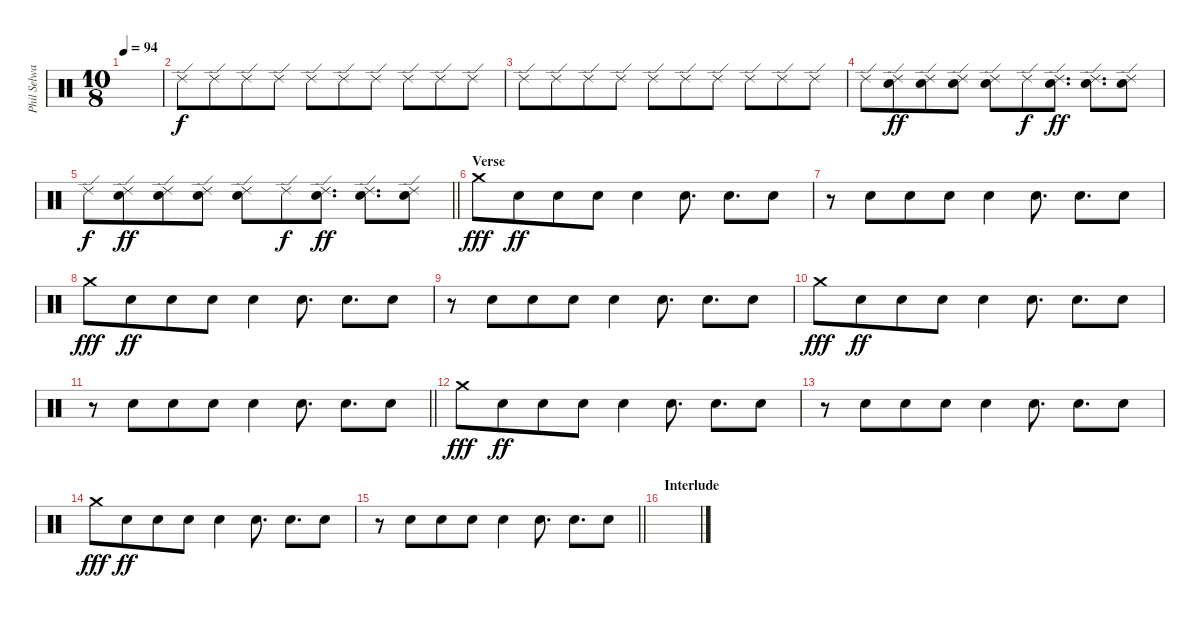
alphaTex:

\track ("Phil Selway" "Phil Selwa") {instrument percussion}
\staff {score}
\articulation defaults
\ts (10 8)
\tempo 94
\clef neutral
\ks c
|
"Ride (edge) 2".8{dy f} "Ride (edge) 2".8 "Ride (edge) 2".8 "Ride (edge) 2".8 "Ride (edge) 2".8 "Ride (edge) 2".8 "Ride (edge) 2".8 "Ride (edge) 2".8 "Ride (edge) 2".8 "Ride (edge) 2".8 |
"Ride (edge) 2".8 "Ride (edge) 2".8 "Ride (edge) 2".8 "Ride (edge) 2".8 "Ride (edge) 2".8 "Ride (edge) 2".8 "Ride (edge) 2".8 "Ride (edge) 2".8 "Ride (edge) 2".8 "Ride (edge) 2".8 |
"Ride (edge) 2".8 ("Ride (edge) 2" "Hand Clap (hit)").8{dy ff} ("Ride (edge) 2" "Hand Clap (hit)").8 ("Ride (edge) 2" "Hand Clap (hit)").8 ("Ride (edge) 2" "Hand Clap (hit)").8 "Ride (edge) 2".8{dy f} ("Ride (edge) 2" "Hand Clap (hit)").8{d dy ff} ("Ride (edge) 2" "Hand Clap (hit)").8{d} ("Ride (edge) 2" "Hand Clap (hit)").8 |
\barLineRight lightlight "Ride (edge) 2".8{dy f}
("Ride (edge) 2" "Hand Clap (hit)").8{dy ff} ("Ride (edge) 2" "Hand Clap (hit)").8 ("Ride (edge) 2" "Hand Clap (hit)").8 ("Ride (edge) 2" "Hand Clap (hit)").8 "Ride (edge) 2".8{dy f} ("Ride (edge) 2" "Hand Clap (hit)").8{d dy ff} ("Ride (edge) 2" "Hand Clap (hit)").8{d} ("Ride (edge) 2" "Hand Clap (hit)").8 |
\section ("" "Verse")
"Crash medium (hit)".8{dy fff} "Hand Clap (hit)".8{dy ff} "Hand Clap (hit)".8 "Hand Clap (hit)".8 "Hand Clap (hit)".4 "Hand Clap (hit)".8{d} "Hand Clap (hit)".8{d} "Hand Clap (hit)".8 |
r.8 "Hand Clap (hit)".8 "Hand Clap (hit)".8 "Hand Clap (hit)".8 "Hand Clap (hit)".4 "Hand Clap (hit)".8{d} "Hand Clap (hit)".8{d} "Hand Clap (hit)".8 |
"Crash medium (hit)".8{dy fff} "Hand Clap (hit)".8{dy ff} "Hand Clap (hit)".8 "Hand Clap (hit)".8 "Hand Clap (hit)".4 "Hand Clap (hit)".8{d} "Hand Clap (hit)".8{d} "Hand Clap (hit)".8 |
r.8 "Hand Clap (hit)".8 "Hand Clap (hit)".8 "Hand Clap (hit)".8 "Hand Clap (hit)".4 "Hand Clap (hit)".8{d} "Hand Clap (hit)".8{d} "Hand Clap (hit)".8 |
"Crash medium (hit)".8{dy fff} "Hand Clap (hit)".8{dy ff} "Hand Clap (hit)".8 "Hand Clap (hit)".8 "Hand Clap (hit)".4 "Hand Clap (hit)".8{d} "Hand Clap (hit)".8{d} "Hand Clap (hit)".8 |
\barLineRight lightlight
r.8 "Hand Clap (hit)".8 "Hand Clap (hit)".8 "Hand Clap (hit)".8 "Hand Clap (hit)".4 "Hand Clap (hit)".8{d} "Hand Clap (hit)".8{d} "Hand Clap (hit)".8 |
"Crash medium (hit)".8{dy fff} "Hand Clap (hit)".8{dy ff} "Hand Clap (hit)".8 "Hand Clap (hit)".8 "Hand Clap (hit)".4 "Hand Clap (hit)".8{d} "Hand Clap (hit)".8{d} "Hand Clap (hit)".8 |
r.8 "Hand Clap (hit)".8 "Hand Clap (hit)".8 "Hand Clap (hit)".8 "Hand Clap (hit)".4 "Hand Clap (hit)".8{d} "Hand Clap (hit)".8{d} "Hand Clap (hit)".8 |
"Crash medium (hit)".8{dy fff} "Hand Clap (hit)".8{dy ff} "Hand Clap (hit)".8 "Hand Clap (hit)".8 "Hand Clap (hit)".4 "Hand Clap (hit)".8{d} "Hand Clap (hit)".8{d} "Hand Clap (hit)".8 |
\barLineRight lightlight
r.8 "Hand Clap (hit)".8 "Hand Clap (hit)".8 "Hand Clap (hit)".8 "Hand Clap (hit)".4 "Hand Clap (hit)".8{d} "Hand Clap (hit)".8{d} "Hand Clap (hit)".8 |
\section ("" "Interlude")
